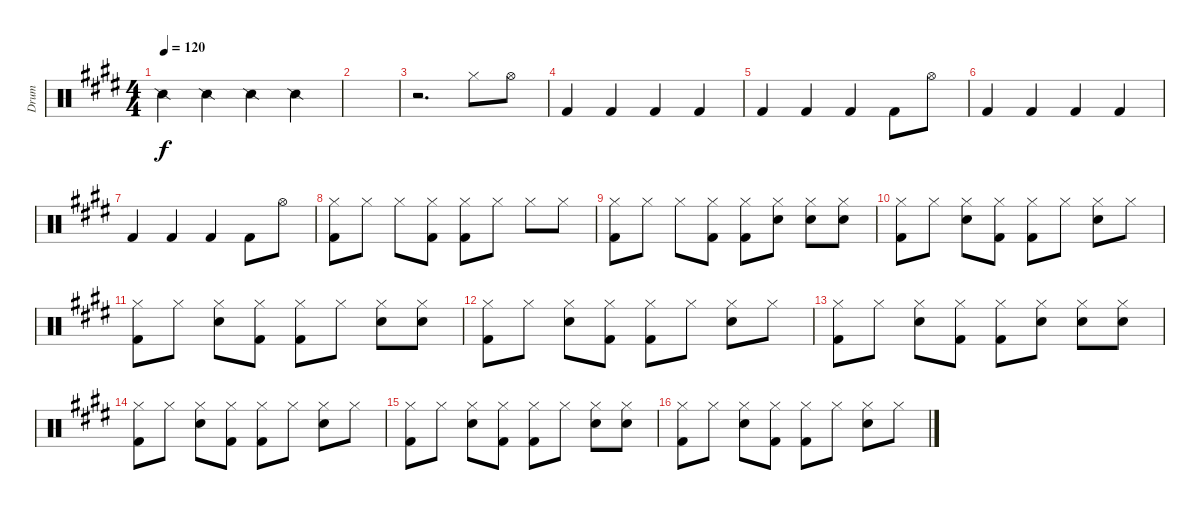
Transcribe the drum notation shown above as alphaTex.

\track ("Drum" "Drum") {instrument percussion}
\staff {score}
\articulation defaults
\ts (4 4)
\tempo 120
\clef neutral
\ks e "Snare (side stick) 2".4{dy f} "Snare (side stick) 2".4 "Snare (side stick) 2".4 "Snare (side stick) 2".4
|
|
r.2{d} "Hi-Hat (closed)".8 "Hi-Hat (open)".8 |
"Kick (hit) 2".4 "Kick (hit) 2".4 "Kick (hit) 2".4 "Kick (hit) 2".4 |
"Kick (hit) 2".4 "Kick (hit) 2".4 "Kick (hit) 2".4 "Kick (hit) 2".8 "Hi-Hat (open)".8 |
"Kick (hit) 2".4 "Kick (hit) 2".4 "Kick (hit) 2".4 "Kick (hit) 2".4 |
"Kick (hit) 2".4 "Kick (hit) 2".4 "Kick (hit) 2".4 "Kick (hit) 2".8 "Hi-Hat (open)".8 |
("Hi-Hat (closed)" "Kick (hit) 2").8 "Hi-Hat (closed)".8 "Hi-Hat (closed)".8 ("Hi-Hat (closed)" "Kick (hit) 2").8 ("Hi-Hat (closed)" "Kick (hit) 2").8 "Hi-Hat (closed)".8 "Hi-Hat (closed)".8 "Hi-Hat (closed)".8 |
("Hi-Hat (closed)" "Kick (hit) 2").8 "Hi-Hat (closed)".8 "Hi-Hat (closed)".8 ("Hi-Hat (closed)" "Kick (hit) 2").8 ("Hi-Hat (closed)" "Kick (hit) 2").8 ("Hi-Hat (closed)" "Snare (hit) 2").8 ("Hi-Hat (closed)" "Snare (hit) 2").8 ("Hi-Hat (closed)" "Snare (hit) 2").8 |
("Hi-Hat (closed)" "Kick (hit) 2").8 "Hi-Hat (closed)".8 ("Hi-Hat (closed)" "Snare (hit) 2").8 ("Hi-Hat (closed)" "Kick (hit) 2").8 ("Hi-Hat (closed)" "Kick (hit) 2").8 "Hi-Hat (closed)".8 ("Hi-Hat (closed)" "Snare (hit) 2").8 "Hi-Hat (closed)".8 |
("Hi-Hat (closed)" "Kick (hit) 2").8 "Hi-Hat (closed)".8 ("Hi-Hat (closed)" "Snare (hit) 2").8 ("Hi-Hat (closed)" "Kick (hit) 2").8 ("Hi-Hat (closed)" "Kick (hit) 2").8 "Hi-Hat (closed)".8 ("Hi-Hat (closed)" "Snare (hit) 2").8 ("Hi-Hat (closed)" "Snare (hit) 2").8 |
("Hi-Hat (closed)" "Kick (hit) 2").8 "Hi-Hat (closed)".8 ("Hi-Hat (closed)" "Snare (hit) 2").8 ("Hi-Hat (closed)" "Kick (hit) 2").8 ("Hi-Hat (closed)" "Kick (hit) 2").8 "Hi-Hat (closed)".8 ("Hi-Hat (closed)" "Snare (hit) 2").8 "Hi-Hat (closed)".8 |
("Hi-Hat (closed)" "Kick (hit) 2").8 "Hi-Hat (closed)".8 ("Hi-Hat (closed)" "Snare (hit) 2").8 ("Hi-Hat (closed)" "Kick (hit) 2").8 ("Hi-Hat (closed)" "Kick (hit) 2").8 ("Hi-Hat (closed)" "Snare (hit) 2").8 ("Hi-Hat (closed)" "Snare (hit) 2").8 ("Hi-Hat (closed)" "Snare (hit) 2").8 |
("Hi-Hat (closed)" "Kick (hit) 2").8 "Hi-Hat (closed)".8 ("Hi-Hat (closed)" "Snare (hit) 2").8 ("Hi-Hat (closed)" "Kick (hit) 2").8 ("Hi-Hat (closed)" "Kick (hit) 2").8 "Hi-Hat (closed)".8 ("Hi-Hat (closed)" "Snare (hit) 2").8 "Hi-Hat (closed)".8 |
("Hi-Hat (closed)" "Kick (hit) 2").8 "Hi-Hat (closed)".8 ("Hi-Hat (closed)" "Snare (hit) 2").8 ("Hi-Hat (closed)" "Kick (hit) 2").8 ("Hi-Hat (closed)" "Kick (hit) 2").8 "Hi-Hat (closed)".8 ("Hi-Hat (closed)" "Snare (hit) 2").8 ("Hi-Hat (closed)" "Snare (hit) 2").8 |
("Hi-Hat (closed)" "Kick (hit) 2").8 "Hi-Hat (closed)".8 ("Hi-Hat (closed)" "Snare (hit) 2").8 ("Hi-Hat (closed)" "Kick (hit) 2").8 ("Hi-Hat (closed)" "Kick (hit) 2").8 "Hi-Hat (closed)".8 ("Hi-Hat (closed)" "Snare (hit) 2").8 "Hi-Hat (closed)".8
